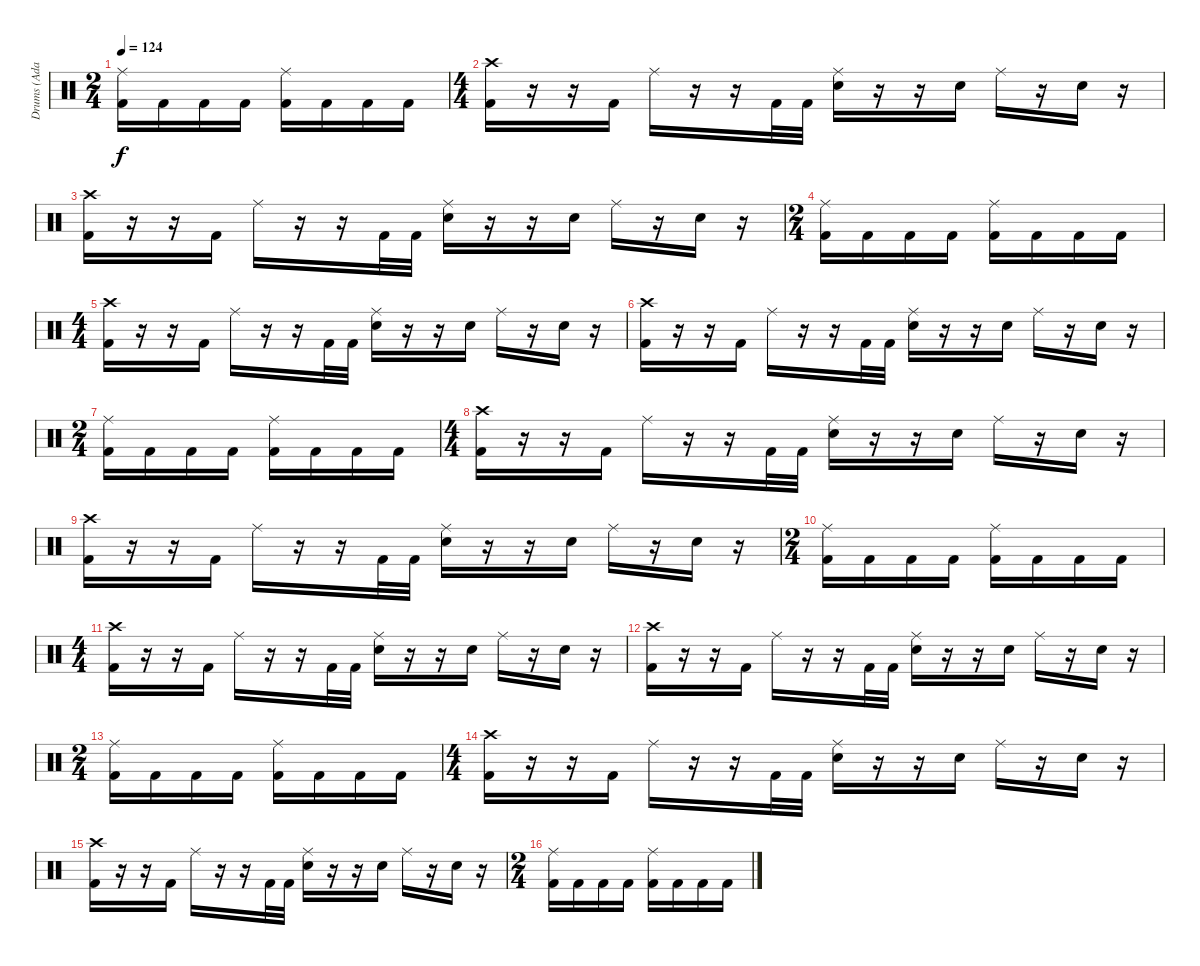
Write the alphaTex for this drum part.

\track ("Drums (Adam Morgan)" "Drums (Ada") {instrument percussion}
\staff {score}
\articulation defaults
\ts (2 4)
\tempo 124
\clef neutral
\ks c
("Ride (middle)" "Kick (hit) 2").16{dy f} "Kick (hit) 2".16 "Kick (hit) 2".16 "Kick (hit) 2".16 ("Ride (middle)" "Kick (hit) 2").16 "Kick (hit) 2".16 "Kick (hit) 2".16 "Kick (hit) 2".16 |
\ts (4 4)
("Crash high (hit)" "Kick (hit) 2").16 r.16 r.16 "Kick (hit) 2".16 "Ride (middle)".16 r.16 r.16 "Kick (hit) 2".32 "Kick (hit) 2".32 ("Ride (middle)" "Snare (hit) 2").16 r.16 r.16 "Snare (hit) 2".16 "Ride (middle)".16 r.16 "Snare (hit) 2".16 r.16 |
("Crash high (hit)" "Kick (hit) 2").16 r.16 r.16 "Kick (hit) 2".16 "Ride (middle)".16 r.16 r.16 "Kick (hit) 2".32 "Kick (hit) 2".32 ("Ride (middle)" "Snare (hit) 2").16 r.16 r.16 "Snare (hit) 2".16 "Ride (middle)".16 r.16 "Snare (hit) 2".16 r.16 |
\ts (2 4)
("Ride (middle)" "Kick (hit) 2").16 "Kick (hit) 2".16 "Kick (hit) 2".16 "Kick (hit) 2".16 ("Ride (middle)" "Kick (hit) 2").16 "Kick (hit) 2".16 "Kick (hit) 2".16 "Kick (hit) 2".16 |
\ts (4 4)
("Crash high (hit)" "Kick (hit) 2").16 r.16 r.16 "Kick (hit) 2".16 "Ride (middle)".16 r.16 r.16 "Kick (hit) 2".32 "Kick (hit) 2".32 ("Ride (middle)" "Snare (hit) 2").16 r.16 r.16 "Snare (hit) 2".16 "Ride (middle)".16 r.16 "Snare (hit) 2".16 r.16 |
("Crash high (hit)" "Kick (hit) 2").16 r.16 r.16 "Kick (hit) 2".16 "Ride (middle)".16 r.16 r.16 "Kick (hit) 2".32 "Kick (hit) 2".32 ("Ride (middle)" "Snare (hit) 2").16 r.16 r.16 "Snare (hit) 2".16 "Ride (middle)".16 r.16 "Snare (hit) 2".16 r.16 |
\ts (2 4)
("Ride (middle)" "Kick (hit) 2").16 "Kick (hit) 2".16 "Kick (hit) 2".16 "Kick (hit) 2".16 ("Ride (middle)" "Kick (hit) 2").16 "Kick (hit) 2".16 "Kick (hit) 2".16 "Kick (hit) 2".16 |
\ts (4 4)
("Crash high (hit)" "Kick (hit) 2").16 r.16 r.16 "Kick (hit) 2".16 "Ride (middle)".16 r.16 r.16 "Kick (hit) 2".32 "Kick (hit) 2".32 ("Ride (middle)" "Snare (hit) 2").16 r.16 r.16 "Snare (hit) 2".16 "Ride (middle)".16 r.16 "Snare (hit) 2".16 r.16 |
("Crash high (hit)" "Kick (hit) 2").16 r.16 r.16 "Kick (hit) 2".16 "Ride (middle)".16 r.16 r.16 "Kick (hit) 2".32 "Kick (hit) 2".32 ("Ride (middle)" "Snare (hit) 2").16 r.16 r.16 "Snare (hit) 2".16 "Ride (middle)".16 r.16 "Snare (hit) 2".16 r.16 |
\ts (2 4)
("Ride (middle)" "Kick (hit) 2").16 "Kick (hit) 2".16 "Kick (hit) 2".16 "Kick (hit) 2".16 ("Ride (middle)" "Kick (hit) 2").16 "Kick (hit) 2".16 "Kick (hit) 2".16 "Kick (hit) 2".16 |
\ts (4 4)
("Crash high (hit)" "Kick (hit) 2").16 r.16 r.16 "Kick (hit) 2".16 "Ride (middle)".16 r.16 r.16 "Kick (hit) 2".32 "Kick (hit) 2".32 ("Ride (middle)" "Snare (hit) 2").16 r.16 r.16 "Snare (hit) 2".16 "Ride (middle)".16 r.16 "Snare (hit) 2".16 r.16 |
("Crash high (hit)" "Kick (hit) 2").16 r.16 r.16 "Kick (hit) 2".16 "Ride (middle)".16 r.16 r.16 "Kick (hit) 2".32 "Kick (hit) 2".32 ("Ride (middle)" "Snare (hit) 2").16 r.16 r.16 "Snare (hit) 2".16 "Ride (middle)".16 r.16 "Snare (hit) 2".16 r.16 |
\ts (2 4)
("Ride (middle)" "Kick (hit) 2").16 "Kick (hit) 2".16 "Kick (hit) 2".16 "Kick (hit) 2".16 ("Ride (middle)" "Kick (hit) 2").16 "Kick (hit) 2".16 "Kick (hit) 2".16 "Kick (hit) 2".16 |
\ts (4 4)
("Crash high (hit)" "Kick (hit) 2").16 r.16 r.16 "Kick (hit) 2".16 "Ride (middle)".16 r.16 r.16 "Kick (hit) 2".32 "Kick (hit) 2".32 ("Ride (middle)" "Snare (hit) 2").16 r.16 r.16 "Snare (hit) 2".16 "Ride (middle)".16 r.16 "Snare (hit) 2".16 r.16 |
("Crash high (hit)" "Kick (hit) 2").16 r.16 r.16 "Kick (hit) 2".16 "Ride (middle)".16 r.16 r.16 "Kick (hit) 2".32 "Kick (hit) 2".32 ("Ride (middle)" "Snare (hit) 2").16 r.16 r.16 "Snare (hit) 2".16 "Ride (middle)".16 r.16 "Snare (hit) 2".16 r.16 |
\ts (2 4)
("Ride (middle)" "Kick (hit) 2").16 "Kick (hit) 2".16 "Kick (hit) 2".16 "Kick (hit) 2".16 ("Ride (middle)" "Kick (hit) 2").16 "Kick (hit) 2".16 "Kick (hit) 2".16 "Kick (hit) 2".16
